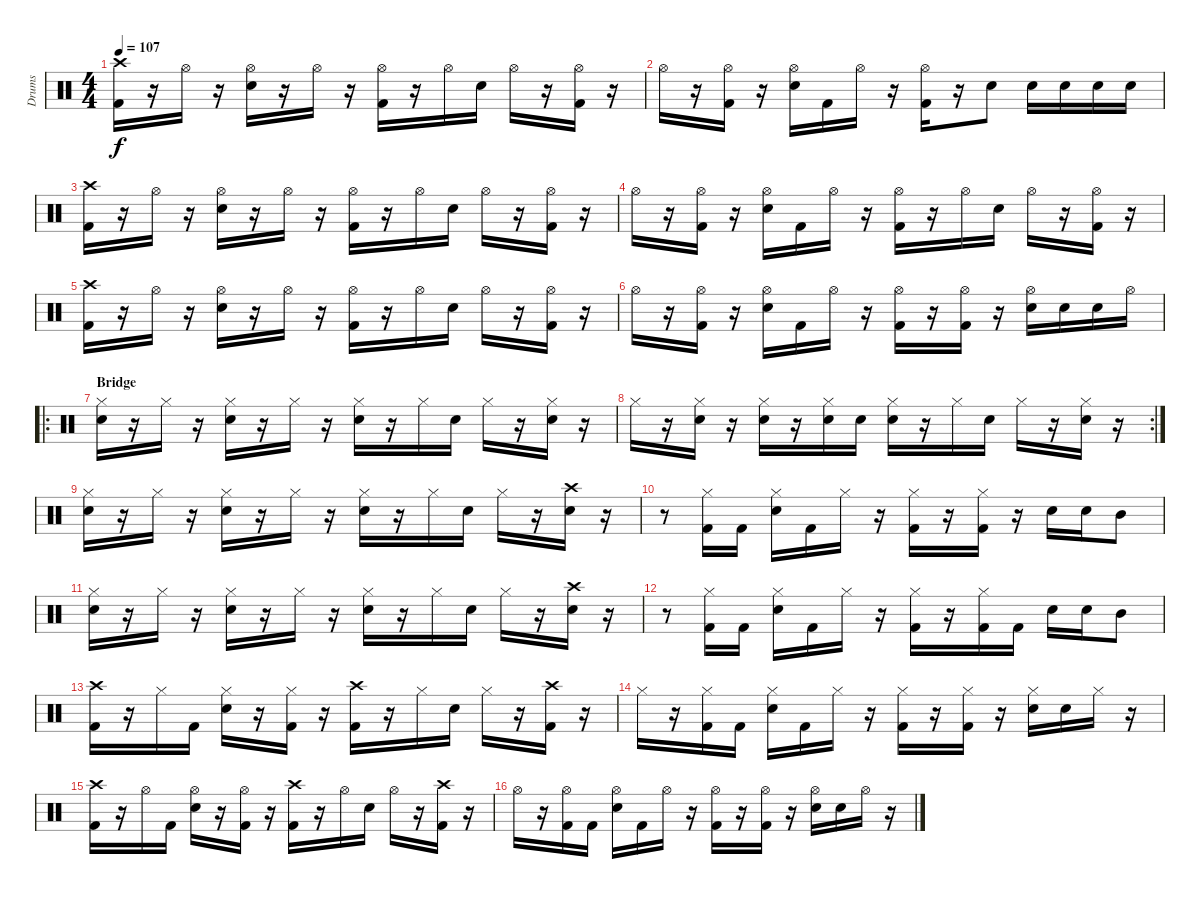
\track ("Drums" "Drums") {instrument percussion}
\staff {score}
\articulation defaults
\ts (4 4)
\tempo 107
\clef neutral
\ks c
("Crash high (hit)" "Kick (hit) 2").16{dy f} r.16 "Hi-Hat (open)".16 r.16 ("Hi-Hat (open)" "Electric Snare (hit)").16 r.16 "Hi-Hat (open)".16 r.16 ("Hi-Hat (open)" "Kick (hit) 2").16 r.16 "Hi-Hat (open)".16 "Electric Snare (hit)".16 "Hi-Hat (open)".16 r.16 ("Hi-Hat (open)" "Kick (hit) 2").16 r.16 |
"Hi-Hat (open)".16 r.16 ("Hi-Hat (open)" "Kick (hit) 2").16 r.16 ("Hi-Hat (open)" "Electric Snare (hit)").16 "Kick (hit) 2".16 "Hi-Hat (open)".16 r.16 ("Hi-Hat (open)" "Kick (hit) 2").16 r.16 "Electric Snare (hit)".8 "Electric Snare (hit)".16 "Electric Snare (hit)".16 "Electric Snare (hit)".16 "Electric Snare (hit)".16 |
("Crash high (hit)" "Kick (hit) 2").16 r.16 "Hi-Hat (open)".16 r.16 ("Hi-Hat (open)" "Electric Snare (hit)").16 r.16 "Hi-Hat (open)".16 r.16 ("Hi-Hat (open)" "Kick (hit) 2").16 r.16 "Hi-Hat (open)".16 "Electric Snare (hit)".16 "Hi-Hat (open)".16 r.16 ("Hi-Hat (open)" "Kick (hit) 2").16 r.16 |
"Hi-Hat (open)".16 r.16 ("Hi-Hat (open)" "Kick (hit) 2").16 r.16 ("Hi-Hat (open)" "Electric Snare (hit)").16 "Kick (hit) 2".16 "Hi-Hat (open)".16 r.16 ("Hi-Hat (open)" "Kick (hit) 2").16 r.16 "Hi-Hat (open)".16 "Electric Snare (hit)".16 "Hi-Hat (open)".16 r.16 ("Hi-Hat (open)" "Kick (hit) 2").16 r.16 |
("Crash high (hit)" "Kick (hit) 2").16 r.16 "Hi-Hat (open)".16 r.16 ("Hi-Hat (open)" "Electric Snare (hit)").16 r.16 "Hi-Hat (open)".16 r.16 ("Hi-Hat (open)" "Kick (hit) 2").16 r.16 "Hi-Hat (open)".16 "Electric Snare (hit)".16 "Hi-Hat (open)".16 r.16 ("Hi-Hat (open)" "Kick (hit) 2").16 r.16 |
"Hi-Hat (open)".16 r.16 ("Hi-Hat (open)" "Kick (hit) 2").16 r.16 ("Hi-Hat (open)" "Electric Snare (hit)").16 "Kick (hit) 2".16 "Hi-Hat (open)".16 r.16 ("Hi-Hat (open)" "Kick (hit) 2").16 r.16 ("Hi-Hat (open)" "Kick (hit) 2").16 r.16 ("Hi-Hat (open)" "Electric Snare (hit)").16 "Electric Snare (hit)".16 "Electric Snare (hit)".16 "Hi-Hat (open)".16 |
\ro
\section ("" "Bridge")
("Hi-Hat (closed)" "Electric Snare (hit)").16 r.16 "Hi-Hat (closed)".16 r.16 ("Hi-Hat (closed)" "Electric Snare (hit)").16 r.16 "Hi-Hat (closed)".16 r.16 ("Hi-Hat (closed)" "Electric Snare (hit)").16 r.16 "Hi-Hat (closed)".16 "Electric Snare (hit)".16 "Hi-Hat (closed)".16 r.16 ("Hi-Hat (closed)" "Electric Snare (hit)").16 r.16 |
\rc 2 "Hi-Hat (closed)".16
r.16 ("Hi-Hat (closed)" "Electric Snare (hit)").16 r.16 ("Hi-Hat (closed)" "Electric Snare (hit)").16 r.16 ("Hi-Hat (closed)" "Electric Snare (hit)").16 "Electric Snare (hit)".16 ("Hi-Hat (closed)" "Electric Snare (hit)").16 r.16 "Hi-Hat (closed)".16 "Electric Snare (hit)".16 "Hi-Hat (closed)".16 r.16 ("Hi-Hat (closed)" "Electric Snare (hit)").16 r.16 |
("Hi-Hat (closed)" "Electric Snare (hit)").16 r.16 "Hi-Hat (closed)".16 r.16 ("Hi-Hat (closed)" "Electric Snare (hit)").16 r.16 "Hi-Hat (closed)".16 r.16 ("Hi-Hat (closed)" "Electric Snare (hit)").16 r.16 "Hi-Hat (closed)".16 "Electric Snare (hit)".16 "Hi-Hat (closed)".16 r.16 ("Crash high (hit)" "Electric Snare (hit)").16 r.16 |
r.8 ("Hi-Hat (closed)" "Kick (hit) 2").16 "Kick (hit) 2".16 ("Hi-Hat (closed)" "Electric Snare (hit)").16 "Kick (hit) 2".16 "Hi-Hat (closed)".16 r.16 ("Hi-Hat (closed)" "Kick (hit) 2").16 r.16 ("Hi-Hat (closed)" "Kick (hit) 2").16 r.16 "Electric Snare (hit)".16 "Electric Snare (hit)".16 "Mid Tom (hit)".8 |
("Hi-Hat (closed)" "Electric Snare (hit)").16 r.16 "Hi-Hat (closed)".16 r.16 ("Hi-Hat (closed)" "Electric Snare (hit)").16 r.16 "Hi-Hat (closed)".16 r.16 ("Hi-Hat (closed)" "Electric Snare (hit)").16 r.16 "Hi-Hat (closed)".16 "Electric Snare (hit)".16 "Hi-Hat (closed)".16 r.16 ("Crash high (hit)" "Electric Snare (hit)").16 r.16 |
r.8 ("Hi-Hat (closed)" "Kick (hit) 2").16 "Kick (hit) 2".16 ("Hi-Hat (closed)" "Electric Snare (hit)").16 "Kick (hit) 2".16 "Hi-Hat (closed)".16 r.16 ("Hi-Hat (closed)" "Kick (hit) 2").16 r.16 ("Hi-Hat (closed)" "Kick (hit) 2").16 "Kick (hit) 2".16 "Electric Snare (hit)".16 "Electric Snare (hit)".16 "Mid Tom (hit)".8 |
("Crash high (hit)" "Kick (hit) 2").16 r.16 "Hi-Hat (closed)".16 "Kick (hit) 2".16 ("Hi-Hat (closed)" "Electric Snare (hit)").16 r.16 ("Hi-Hat (closed)" "Kick (hit) 2").16 r.16 ("Crash high (hit)" "Kick (hit) 2").16 r.16 "Hi-Hat (closed)".16 "Electric Snare (hit)".16 "Hi-Hat (closed)".16 r.16 ("Crash high (hit)" "Kick (hit) 2").16 r.16 |
"Hi-Hat (closed)".16 r.16 ("Hi-Hat (closed)" "Kick (hit) 2").16 "Kick (hit) 2".16 ("Hi-Hat (closed)" "Electric Snare (hit)").16 "Kick (hit) 2".16 "Hi-Hat (closed)".16 r.16 ("Hi-Hat (closed)" "Kick (hit) 2").16 r.16 ("Hi-Hat (closed)" "Kick (hit) 2").16 r.16 ("Hi-Hat (closed)" "Electric Snare (hit)").16 "Electric Snare (hit)".16 "Hi-Hat (closed)".16 r.16 |
("Crash high (hit)" "Kick (hit) 2").16 r.16 "Hi-Hat (open)".16 "Kick (hit) 2".16 ("Hi-Hat (open)" "Electric Snare (hit)").16 r.16 ("Hi-Hat (open)" "Kick (hit) 2").16 r.16 ("Crash high (hit)" "Kick (hit) 2").16 r.16 "Hi-Hat (open)".16 "Electric Snare (hit)".16 "Hi-Hat (open)".16 r.16 ("Crash high (hit)" "Kick (hit) 2").16 r.16 |
"Hi-Hat (open)".16 r.16 ("Hi-Hat (open)" "Kick (hit) 2").16 "Kick (hit) 2".16 ("Hi-Hat (open)" "Electric Snare (hit)").16 "Kick (hit) 2".16 "Hi-Hat (open)".16 r.16 ("Hi-Hat (open)" "Kick (hit) 2").16 r.16 ("Hi-Hat (open)" "Kick (hit) 2").16 r.16 ("Hi-Hat (open)" "Electric Snare (hit)").16 "Electric Snare (hit)".16 "Hi-Hat (open)".16 r.16
